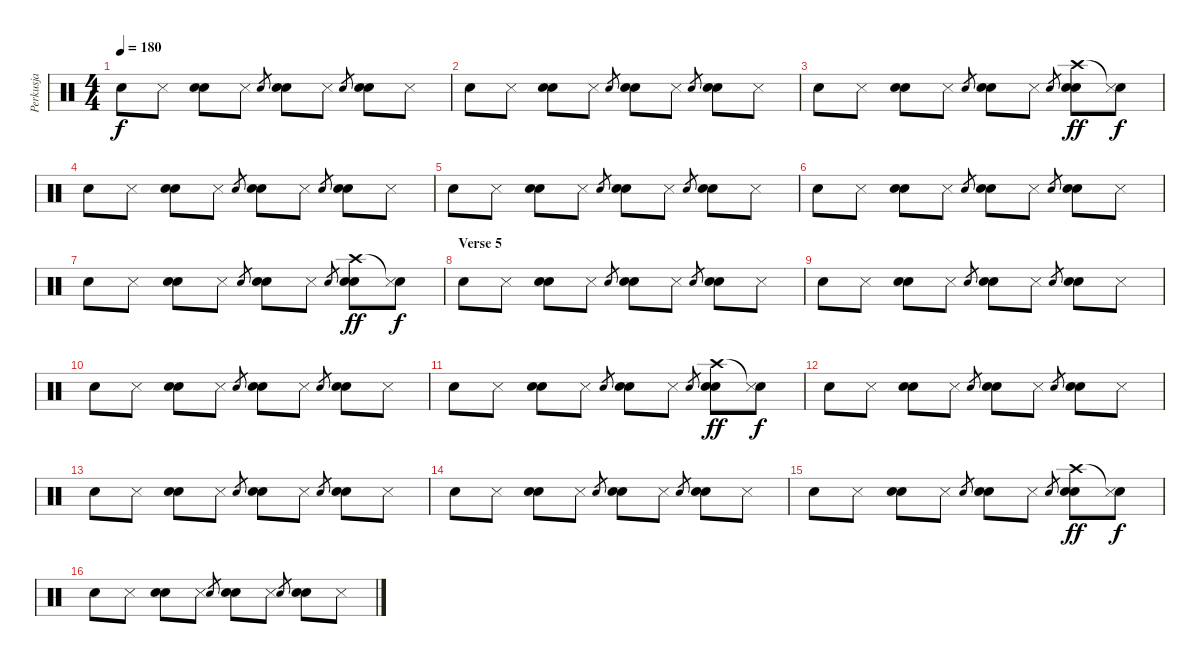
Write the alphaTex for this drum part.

\track ("Perkusja" "Perkusja") {instrument percussion}
\staff {score}
\articulation defaults
\ts (4 4)
\tempo 180
\clef neutral
\ks c "Snare (hit) 2".8{dy f} "Snare (side stick) 3".8
("Electric Snare (hit)" "Metronome (bell)").8 "Snare (side stick) 3".8 "Snare (hit) 2".8{gr} ("Snare (hit) 2" "Metronome (bell)").8 "Snare (side stick) 3".8 "Electric Snare (hit)".8{gr} ("Electric Snare (hit)" "Metronome (bell)").8 "Snare (side stick) 3".8 |
"Snare (hit) 2".8 "Snare (side stick) 3".8 ("Electric Snare (hit)" "Metronome (bell)").8 "Snare (side stick) 3".8 "Snare (hit) 2".8{gr} ("Snare (hit) 2" "Metronome (bell)").8 "Snare (side stick) 3".8 "Electric Snare (hit)".8{gr} ("Electric Snare (hit)" "Metronome (bell)").8 "Snare (side stick) 3".8 |
"Snare (hit) 2".8 "Snare (side stick) 3".8 ("Electric Snare (hit)" "Metronome (bell)").8 "Snare (side stick) 3".8 "Snare (hit) 2".8{gr} ("Snare (hit) 2" "Metronome (bell)").8 "Snare (side stick) 3".8 "Electric Snare (hit)".8{gr} ("Crash high (hit)" "Electric Snare (hit)" "Metronome (bell)").8{dy ff} ("Snare (hit)"{t} "Snare (side stick) 3").8{dy f} |
"Snare (hit) 2".8 "Snare (side stick) 3".8 ("Electric Snare (hit)" "Metronome (bell)").8 "Snare (side stick) 3".8 "Snare (hit) 2".8{gr} ("Snare (hit) 2" "Metronome (bell)").8 "Snare (side stick) 3".8 "Electric Snare (hit)".8{gr} ("Electric Snare (hit)" "Metronome (bell)").8 "Snare (side stick) 3".8 |
"Snare (hit) 2".8 "Snare (side stick) 3".8 ("Electric Snare (hit)" "Metronome (bell)").8 "Snare (side stick) 3".8 "Snare (hit) 2".8{gr} ("Snare (hit) 2" "Metronome (bell)").8 "Snare (side stick) 3".8 "Electric Snare (hit)".8{gr} ("Electric Snare (hit)" "Metronome (bell)").8 "Snare (side stick) 3".8 |
"Snare (hit) 2".8 "Snare (side stick) 3".8 ("Electric Snare (hit)" "Metronome (bell)").8 "Snare (side stick) 3".8 "Snare (hit) 2".8{gr} ("Snare (hit) 2" "Metronome (bell)").8 "Snare (side stick) 3".8 "Electric Snare (hit)".8{gr} ("Electric Snare (hit)" "Metronome (bell)").8 "Snare (side stick) 3".8 |
"Snare (hit) 2".8 "Snare (side stick) 3".8 ("Electric Snare (hit)" "Metronome (bell)").8 "Snare (side stick) 3".8 "Snare (hit) 2".8{gr} ("Snare (hit) 2" "Metronome (bell)").8 "Snare (side stick) 3".8 "Electric Snare (hit)".8{gr} ("Crash high (hit)" "Electric Snare (hit)" "Metronome (bell)").8{dy ff} ("Snare (hit)"{t} "Snare (side stick) 3").8{dy f} |
\section ("" "Verse 5")
"Snare (hit) 2".8 "Snare (side stick) 3".8 ("Electric Snare (hit)" "Metronome (bell)").8 "Snare (side stick) 3".8 "Snare (hit) 2".8{gr} ("Snare (hit) 2" "Metronome (bell)").8 "Snare (side stick) 3".8 "Electric Snare (hit)".8{gr} ("Electric Snare (hit)" "Metronome (bell)").8 "Snare (side stick) 3".8 |
"Snare (hit) 2".8 "Snare (side stick) 3".8 ("Electric Snare (hit)" "Metronome (bell)").8 "Snare (side stick) 3".8 "Snare (hit) 2".8{gr} ("Snare (hit) 2" "Metronome (bell)").8 "Snare (side stick) 3".8 "Electric Snare (hit)".8{gr} ("Electric Snare (hit)" "Metronome (bell)").8 "Snare (side stick) 3".8 |
"Snare (hit) 2".8 "Snare (side stick) 3".8 ("Electric Snare (hit)" "Metronome (bell)").8 "Snare (side stick) 3".8 "Snare (hit) 2".8{gr} ("Snare (hit) 2" "Metronome (bell)").8 "Snare (side stick) 3".8 "Electric Snare (hit)".8{gr} ("Electric Snare (hit)" "Metronome (bell)").8 "Snare (side stick) 3".8 |
"Snare (hit) 2".8 "Snare (side stick) 3".8 ("Electric Snare (hit)" "Metronome (bell)").8 "Snare (side stick) 3".8 "Snare (hit) 2".8{gr} ("Snare (hit) 2" "Metronome (bell)").8 "Snare (side stick) 3".8 "Electric Snare (hit)".8{gr} ("Crash high (hit)" "Electric Snare (hit)" "Metronome (bell)").8{dy ff} ("Snare (hit)"{t} "Snare (side stick) 3").8{dy f} |
"Snare (hit) 2".8 "Snare (side stick) 3".8 ("Electric Snare (hit)" "Metronome (bell)").8 "Snare (side stick) 3".8 "Snare (hit) 2".8{gr} ("Snare (hit) 2" "Metronome (bell)").8 "Snare (side stick) 3".8 "Electric Snare (hit)".8{gr} ("Electric Snare (hit)" "Metronome (bell)").8 "Snare (side stick) 3".8 |
"Snare (hit) 2".8 "Snare (side stick) 3".8 ("Electric Snare (hit)" "Metronome (bell)").8 "Snare (side stick) 3".8 "Snare (hit) 2".8{gr} ("Snare (hit) 2" "Metronome (bell)").8 "Snare (side stick) 3".8 "Electric Snare (hit)".8{gr} ("Electric Snare (hit)" "Metronome (bell)").8 "Snare (side stick) 3".8 |
"Snare (hit) 2".8 "Snare (side stick) 3".8 ("Electric Snare (hit)" "Metronome (bell)").8 "Snare (side stick) 3".8 "Snare (hit) 2".8{gr} ("Snare (hit) 2" "Metronome (bell)").8 "Snare (side stick) 3".8 "Electric Snare (hit)".8{gr} ("Electric Snare (hit)" "Metronome (bell)").8 "Snare (side stick) 3".8 |
"Snare (hit) 2".8 "Snare (side stick) 3".8 ("Electric Snare (hit)" "Metronome (bell)").8 "Snare (side stick) 3".8 "Snare (hit) 2".8{gr} ("Snare (hit) 2" "Metronome (bell)").8 "Snare (side stick) 3".8 "Electric Snare (hit)".8{gr} ("Crash high (hit)" "Electric Snare (hit)" "Metronome (bell)").8{dy ff} ("Snare (hit)"{t} "Snare (side stick) 3").8{dy f} |
"Snare (hit) 2".8 "Snare (side stick) 3".8 ("Electric Snare (hit)" "Metronome (bell)").8 "Snare (side stick) 3".8 "Snare (hit) 2".8{gr} ("Snare (hit) 2" "Metronome (bell)").8 "Snare (side stick) 3".8 "Electric Snare (hit)".8{gr} ("Electric Snare (hit)" "Metronome (bell)").8 "Snare (side stick) 3".8
